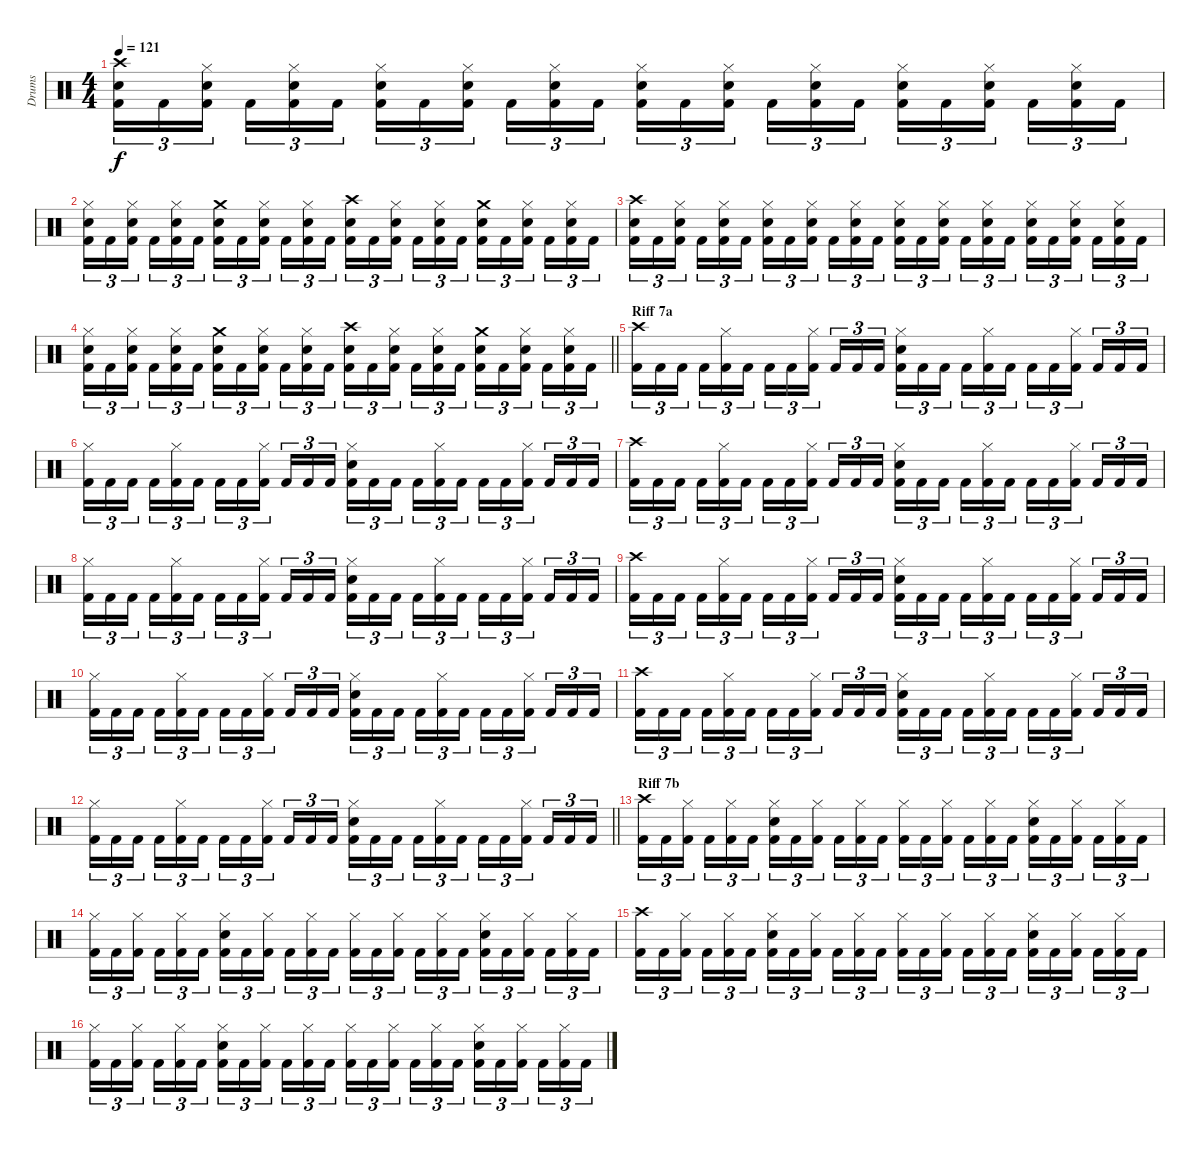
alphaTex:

\track ("Drums" "Drums") {instrument percussion}
\staff {score}
\articulation defaults
\ts (4 4)
\tempo 121
\clef neutral
\ks c
("Kick (hit) 2" "Crash high (hit)" "Snare (hit) 2").16{tu (3 2) dy f} "Kick (hit) 2".16{tu (3 2)} ("Kick (hit) 2" "Snare (hit) 2" "Hi-Hat (closed)").16{tu (3 2) beam splitsecondary} "Kick (hit) 2".16{tu (3 2)} ("Kick (hit) 2" "Snare (hit) 2" "Hi-Hat (closed)").16{tu (3 2)} "Kick (hit) 2".16{tu (3 2)} ("Kick (hit) 2" "Snare (hit) 2" "Hi-Hat (closed)").16{tu (3 2)} "Kick (hit) 2".16{tu (3 2)} ("Kick (hit) 2" "Snare (hit) 2" "Hi-Hat (closed)").16{tu (3 2) beam splitsecondary} "Kick (hit) 2".16{tu (3 2)} ("Kick (hit) 2" "Snare (hit) 2" "Hi-Hat (closed)").16{tu (3 2)} "Kick (hit) 2".16{tu (3 2)} ("Kick (hit) 2" "Snare (hit) 2" "Hi-Hat (closed)").16{tu (3 2)} "Kick (hit) 2".16{tu (3 2)} ("Kick (hit) 2" "Snare (hit) 2" "Hi-Hat (closed)").16{tu (3 2) beam splitsecondary} "Kick (hit) 2".16{tu (3 2)} ("Kick (hit) 2" "Snare (hit) 2" "Hi-Hat (closed)").16{tu (3 2)} "Kick (hit) 2".16{tu (3 2)} ("Kick (hit) 2" "Snare (hit) 2" "Hi-Hat (closed)").16{tu (3 2)} "Kick (hit) 2".16{tu (3 2)} ("Kick (hit) 2" "Snare (hit) 2" "Hi-Hat (closed)").16{tu (3 2) beam splitsecondary} "Kick (hit) 2".16{tu (3 2)} ("Kick (hit) 2" "Snare (hit) 2" "Hi-Hat (closed)").16{tu (3 2)} "Kick (hit) 2".16{tu (3 2)} |
("Kick (hit) 2" "Snare (hit) 2" "Hi-Hat (closed)").16{tu (3 2)} "Kick (hit) 2".16{tu (3 2)} ("Kick (hit) 2" "Snare (hit) 2" "Hi-Hat (closed)").16{tu (3 2) beam splitsecondary} "Kick (hit) 2".16{tu (3 2)} ("Kick (hit) 2" "Snare (hit) 2" "Hi-Hat (closed)").16{tu (3 2)} "Kick (hit) 2".16{tu (3 2)} ("Kick (hit) 2" "Crash medium (hit)" "Snare (hit) 2").16{tu (3 2)} "Kick (hit) 2".16{tu (3 2)} ("Kick (hit) 2" "Snare (hit) 2" "Hi-Hat (closed)").16{tu (3 2) beam splitsecondary} "Kick (hit) 2".16{tu (3 2)} ("Kick (hit) 2" "Snare (hit) 2" "Hi-Hat (closed)").16{tu (3 2)} "Kick (hit) 2".16{tu (3 2)} ("Kick (hit) 2" "Crash high (hit)" "Snare (hit) 2").16{tu (3 2)} "Kick (hit) 2".16{tu (3 2)} ("Kick (hit) 2" "Snare (hit) 2" "Hi-Hat (closed)").16{tu (3 2) beam splitsecondary} "Kick (hit) 2".16{tu (3 2)} ("Kick (hit) 2" "Snare (hit) 2" "Hi-Hat (closed)").16{tu (3 2)} "Kick (hit) 2".16{tu (3 2)} ("Kick (hit) 2" "Crash medium (hit)" "Snare (hit) 2").16{tu (3 2)} "Kick (hit) 2".16{tu (3 2)} ("Kick (hit) 2" "Snare (hit) 2" "Hi-Hat (closed)").16{tu (3 2) beam splitsecondary} "Kick (hit) 2".16{tu (3 2)} ("Kick (hit) 2" "Snare (hit) 2" "Hi-Hat (closed)").16{tu (3 2)} "Kick (hit) 2".16{tu (3 2)} |
("Kick (hit) 2" "Crash high (hit)" "Snare (hit) 2").16{tu (3 2)} "Kick (hit) 2".16{tu (3 2)} ("Kick (hit) 2" "Snare (hit) 2" "Hi-Hat (closed)").16{tu (3 2) beam splitsecondary} "Kick (hit) 2".16{tu (3 2)} ("Kick (hit) 2" "Snare (hit) 2" "Hi-Hat (closed)").16{tu (3 2)} "Kick (hit) 2".16{tu (3 2)} ("Kick (hit) 2" "Snare (hit) 2" "Hi-Hat (closed)").16{tu (3 2)} "Kick (hit) 2".16{tu (3 2)} ("Kick (hit) 2" "Snare (hit) 2" "Hi-Hat (closed)").16{tu (3 2) beam splitsecondary} "Kick (hit) 2".16{tu (3 2)} ("Kick (hit) 2" "Snare (hit) 2" "Hi-Hat (closed)").16{tu (3 2)} "Kick (hit) 2".16{tu (3 2)} ("Kick (hit) 2" "Snare (hit) 2" "Hi-Hat (closed)").16{tu (3 2)} "Kick (hit) 2".16{tu (3 2)} ("Kick (hit) 2" "Snare (hit) 2" "Hi-Hat (closed)").16{tu (3 2) beam splitsecondary} "Kick (hit) 2".16{tu (3 2)} ("Kick (hit) 2" "Snare (hit) 2" "Hi-Hat (closed)").16{tu (3 2)} "Kick (hit) 2".16{tu (3 2)} ("Kick (hit) 2" "Snare (hit) 2" "Hi-Hat (closed)").16{tu (3 2)} "Kick (hit) 2".16{tu (3 2)} ("Kick (hit) 2" "Snare (hit) 2" "Hi-Hat (closed)").16{tu (3 2) beam splitsecondary} "Kick (hit) 2".16{tu (3 2)} ("Kick (hit) 2" "Snare (hit) 2" "Hi-Hat (closed)").16{tu (3 2)} "Kick (hit) 2".16{tu (3 2)} |
\barLineRight lightlight
("Kick (hit) 2" "Snare (hit) 2" "Hi-Hat (closed)").16{tu (3 2)} "Kick (hit) 2".16{tu (3 2)} ("Kick (hit) 2" "Snare (hit) 2" "Hi-Hat (closed)").16{tu (3 2) beam splitsecondary} "Kick (hit) 2".16{tu (3 2)} ("Kick (hit) 2" "Snare (hit) 2" "Hi-Hat (closed)").16{tu (3 2)} "Kick (hit) 2".16{tu (3 2)} ("Kick (hit) 2" "Crash medium (hit)" "Snare (hit) 2").16{tu (3 2)} "Kick (hit) 2".16{tu (3 2)} ("Kick (hit) 2" "Snare (hit) 2" "Hi-Hat (closed)").16{tu (3 2) beam splitsecondary} "Kick (hit) 2".16{tu (3 2)} ("Kick (hit) 2" "Snare (hit) 2" "Hi-Hat (closed)").16{tu (3 2)} "Kick (hit) 2".16{tu (3 2)} ("Kick (hit) 2" "Crash high (hit)" "Snare (hit) 2").16{tu (3 2)} "Kick (hit) 2".16{tu (3 2)} ("Kick (hit) 2" "Snare (hit) 2" "Hi-Hat (closed)").16{tu (3 2) beam splitsecondary} "Kick (hit) 2".16{tu (3 2)} ("Kick (hit) 2" "Snare (hit) 2" "Hi-Hat (closed)").16{tu (3 2)} "Kick (hit) 2".16{tu (3 2)} ("Kick (hit) 2" "Crash medium (hit)" "Snare (hit) 2").16{tu (3 2)} "Kick (hit) 2".16{tu (3 2)} ("Kick (hit) 2" "Snare (hit) 2" "Hi-Hat (closed)").16{tu (3 2) beam splitsecondary} "Kick (hit) 2".16{tu (3 2)} ("Kick (hit) 2" "Snare (hit) 2" "Hi-Hat (closed)").16{tu (3 2)} "Kick (hit) 2".16{tu (3 2)} |
\section ("" "Riff 7a")
("Kick (hit) 2" "Crash high (hit)").16{tu (3 2)} "Kick (hit) 2".16{tu (3 2)} "Kick (hit) 2".16{tu (3 2) beam splitsecondary} "Kick (hit) 2".16{tu (3 2)} ("Kick (hit) 2" "Hi-Hat (closed)").16{tu (3 2)} "Kick (hit) 2".16{tu (3 2)} "Kick (hit) 2".16{tu (3 2)} "Kick (hit) 2".16{tu (3 2)} ("Kick (hit) 2" "Hi-Hat (closed)").16{tu (3 2) beam splitsecondary} "Kick (hit) 2".16{tu (3 2)} "Kick (hit) 2".16{tu (3 2)} "Kick (hit) 2".16{tu (3 2)} ("Kick (hit) 2" "Hi-Hat (closed)" "Snare (hit) 2").16{tu (3 2)} "Kick (hit) 2".16{tu (3 2)} "Kick (hit) 2".16{tu (3 2) beam splitsecondary} "Kick (hit) 2".16{tu (3 2)} ("Kick (hit) 2" "Hi-Hat (closed)").16{tu (3 2)} "Kick (hit) 2".16{tu (3 2)} "Kick (hit) 2".16{tu (3 2)} "Kick (hit) 2".16{tu (3 2)} ("Kick (hit) 2" "Hi-Hat (closed)").16{tu (3 2) beam splitsecondary} "Kick (hit) 2".16{tu (3 2)} "Kick (hit) 2".16{tu (3 2)} "Kick (hit) 2".16{tu (3 2)} |
("Kick (hit) 2" "Hi-Hat (closed)").16{tu (3 2)} "Kick (hit) 2".16{tu (3 2)} "Kick (hit) 2".16{tu (3 2) beam splitsecondary} "Kick (hit) 2".16{tu (3 2)} ("Kick (hit) 2" "Hi-Hat (closed)").16{tu (3 2)} "Kick (hit) 2".16{tu (3 2)} "Kick (hit) 2".16{tu (3 2)} "Kick (hit) 2".16{tu (3 2)} ("Kick (hit) 2" "Hi-Hat (closed)").16{tu (3 2) beam splitsecondary} "Kick (hit) 2".16{tu (3 2)} "Kick (hit) 2".16{tu (3 2)} "Kick (hit) 2".16{tu (3 2)} ("Kick (hit) 2" "Hi-Hat (closed)" "Snare (hit) 2").16{tu (3 2)} "Kick (hit) 2".16{tu (3 2)} "Kick (hit) 2".16{tu (3 2) beam splitsecondary} "Kick (hit) 2".16{tu (3 2)} ("Kick (hit) 2" "Hi-Hat (closed)").16{tu (3 2)} "Kick (hit) 2".16{tu (3 2)} "Kick (hit) 2".16{tu (3 2)} "Kick (hit) 2".16{tu (3 2)} ("Kick (hit) 2" "Hi-Hat (closed)").16{tu (3 2) beam splitsecondary} "Kick (hit) 2".16{tu (3 2)} "Kick (hit) 2".16{tu (3 2)} "Kick (hit) 2".16{tu (3 2)} |
("Kick (hit) 2" "Crash high (hit)").16{tu (3 2)} "Kick (hit) 2".16{tu (3 2)} "Kick (hit) 2".16{tu (3 2) beam splitsecondary} "Kick (hit) 2".16{tu (3 2)} ("Kick (hit) 2" "Hi-Hat (closed)").16{tu (3 2)} "Kick (hit) 2".16{tu (3 2)} "Kick (hit) 2".16{tu (3 2)} "Kick (hit) 2".16{tu (3 2)} ("Kick (hit) 2" "Hi-Hat (closed)").16{tu (3 2) beam splitsecondary} "Kick (hit) 2".16{tu (3 2)} "Kick (hit) 2".16{tu (3 2)} "Kick (hit) 2".16{tu (3 2)} ("Kick (hit) 2" "Hi-Hat (closed)" "Snare (hit) 2").16{tu (3 2)} "Kick (hit) 2".16{tu (3 2)} "Kick (hit) 2".16{tu (3 2) beam splitsecondary} "Kick (hit) 2".16{tu (3 2)} ("Kick (hit) 2" "Hi-Hat (closed)").16{tu (3 2)} "Kick (hit) 2".16{tu (3 2)} "Kick (hit) 2".16{tu (3 2)} "Kick (hit) 2".16{tu (3 2)} ("Kick (hit) 2" "Hi-Hat (closed)").16{tu (3 2) beam splitsecondary} "Kick (hit) 2".16{tu (3 2)} "Kick (hit) 2".16{tu (3 2)} "Kick (hit) 2".16{tu (3 2)} |
("Kick (hit) 2" "Hi-Hat (closed)").16{tu (3 2)} "Kick (hit) 2".16{tu (3 2)} "Kick (hit) 2".16{tu (3 2) beam splitsecondary} "Kick (hit) 2".16{tu (3 2)} ("Kick (hit) 2" "Hi-Hat (closed)").16{tu (3 2)} "Kick (hit) 2".16{tu (3 2)} "Kick (hit) 2".16{tu (3 2)} "Kick (hit) 2".16{tu (3 2)} ("Kick (hit) 2" "Hi-Hat (closed)").16{tu (3 2) beam splitsecondary} "Kick (hit) 2".16{tu (3 2)} "Kick (hit) 2".16{tu (3 2)} "Kick (hit) 2".16{tu (3 2)} ("Kick (hit) 2" "Hi-Hat (closed)" "Snare (hit) 2").16{tu (3 2)} "Kick (hit) 2".16{tu (3 2)} "Kick (hit) 2".16{tu (3 2) beam splitsecondary} "Kick (hit) 2".16{tu (3 2)} ("Kick (hit) 2" "Hi-Hat (closed)").16{tu (3 2)} "Kick (hit) 2".16{tu (3 2)} "Kick (hit) 2".16{tu (3 2)} "Kick (hit) 2".16{tu (3 2)} ("Kick (hit) 2" "Hi-Hat (closed)").16{tu (3 2) beam splitsecondary} "Kick (hit) 2".16{tu (3 2)} "Kick (hit) 2".16{tu (3 2)} "Kick (hit) 2".16{tu (3 2)} |
("Kick (hit) 2" "Crash high (hit)").16{tu (3 2)} "Kick (hit) 2".16{tu (3 2)} "Kick (hit) 2".16{tu (3 2) beam splitsecondary} "Kick (hit) 2".16{tu (3 2)} ("Kick (hit) 2" "Hi-Hat (closed)").16{tu (3 2)} "Kick (hit) 2".16{tu (3 2)} "Kick (hit) 2".16{tu (3 2)} "Kick (hit) 2".16{tu (3 2)} ("Kick (hit) 2" "Hi-Hat (closed)").16{tu (3 2) beam splitsecondary} "Kick (hit) 2".16{tu (3 2)} "Kick (hit) 2".16{tu (3 2)} "Kick (hit) 2".16{tu (3 2)} ("Kick (hit) 2" "Hi-Hat (closed)" "Snare (hit) 2").16{tu (3 2)} "Kick (hit) 2".16{tu (3 2)} "Kick (hit) 2".16{tu (3 2) beam splitsecondary} "Kick (hit) 2".16{tu (3 2)} ("Kick (hit) 2" "Hi-Hat (closed)").16{tu (3 2)} "Kick (hit) 2".16{tu (3 2)} "Kick (hit) 2".16{tu (3 2)} "Kick (hit) 2".16{tu (3 2)} ("Kick (hit) 2" "Hi-Hat (closed)").16{tu (3 2) beam splitsecondary} "Kick (hit) 2".16{tu (3 2)} "Kick (hit) 2".16{tu (3 2)} "Kick (hit) 2".16{tu (3 2)} |
("Kick (hit) 2" "Hi-Hat (closed)").16{tu (3 2)} "Kick (hit) 2".16{tu (3 2)} "Kick (hit) 2".16{tu (3 2) beam splitsecondary} "Kick (hit) 2".16{tu (3 2)} ("Kick (hit) 2" "Hi-Hat (closed)").16{tu (3 2)} "Kick (hit) 2".16{tu (3 2)} "Kick (hit) 2".16{tu (3 2)} "Kick (hit) 2".16{tu (3 2)} ("Kick (hit) 2" "Hi-Hat (closed)").16{tu (3 2) beam splitsecondary} "Kick (hit) 2".16{tu (3 2)} "Kick (hit) 2".16{tu (3 2)} "Kick (hit) 2".16{tu (3 2)} ("Kick (hit) 2" "Hi-Hat (closed)" "Snare (hit) 2").16{tu (3 2)} "Kick (hit) 2".16{tu (3 2)} "Kick (hit) 2".16{tu (3 2) beam splitsecondary} "Kick (hit) 2".16{tu (3 2)} ("Kick (hit) 2" "Hi-Hat (closed)").16{tu (3 2)} "Kick (hit) 2".16{tu (3 2)} "Kick (hit) 2".16{tu (3 2)} "Kick (hit) 2".16{tu (3 2)} ("Kick (hit) 2" "Hi-Hat (closed)").16{tu (3 2) beam splitsecondary} "Kick (hit) 2".16{tu (3 2)} "Kick (hit) 2".16{tu (3 2)} "Kick (hit) 2".16{tu (3 2)} |
("Kick (hit) 2" "Crash high (hit)").16{tu (3 2)} "Kick (hit) 2".16{tu (3 2)} "Kick (hit) 2".16{tu (3 2) beam splitsecondary} "Kick (hit) 2".16{tu (3 2)} ("Kick (hit) 2" "Hi-Hat (closed)").16{tu (3 2)} "Kick (hit) 2".16{tu (3 2)} "Kick (hit) 2".16{tu (3 2)} "Kick (hit) 2".16{tu (3 2)} ("Kick (hit) 2" "Hi-Hat (closed)").16{tu (3 2) beam splitsecondary} "Kick (hit) 2".16{tu (3 2)} "Kick (hit) 2".16{tu (3 2)} "Kick (hit) 2".16{tu (3 2)} ("Kick (hit) 2" "Hi-Hat (closed)" "Snare (hit) 2").16{tu (3 2)} "Kick (hit) 2".16{tu (3 2)} "Kick (hit) 2".16{tu (3 2) beam splitsecondary} "Kick (hit) 2".16{tu (3 2)} ("Kick (hit) 2" "Hi-Hat (closed)").16{tu (3 2)} "Kick (hit) 2".16{tu (3 2)} "Kick (hit) 2".16{tu (3 2)} "Kick (hit) 2".16{tu (3 2)} ("Kick (hit) 2" "Hi-Hat (closed)").16{tu (3 2) beam splitsecondary} "Kick (hit) 2".16{tu (3 2)} "Kick (hit) 2".16{tu (3 2)} "Kick (hit) 2".16{tu (3 2)} |
\barLineRight lightlight
("Kick (hit) 2" "Hi-Hat (closed)").16{tu (3 2)} "Kick (hit) 2".16{tu (3 2)} "Kick (hit) 2".16{tu (3 2) beam splitsecondary} "Kick (hit) 2".16{tu (3 2)} ("Kick (hit) 2" "Hi-Hat (closed)").16{tu (3 2)} "Kick (hit) 2".16{tu (3 2)} "Kick (hit) 2".16{tu (3 2)} "Kick (hit) 2".16{tu (3 2)} ("Kick (hit) 2" "Hi-Hat (closed)").16{tu (3 2) beam splitsecondary} "Kick (hit) 2".16{tu (3 2)} "Kick (hit) 2".16{tu (3 2)} "Kick (hit) 2".16{tu (3 2)} ("Kick (hit) 2" "Hi-Hat (closed)" "Snare (hit) 2").16{tu (3 2)} "Kick (hit) 2".16{tu (3 2)} "Kick (hit) 2".16{tu (3 2) beam splitsecondary} "Kick (hit) 2".16{tu (3 2)} ("Kick (hit) 2" "Hi-Hat (closed)").16{tu (3 2)} "Kick (hit) 2".16{tu (3 2)} "Kick (hit) 2".16{tu (3 2)} "Kick (hit) 2".16{tu (3 2)} ("Kick (hit) 2" "Hi-Hat (closed)").16{tu (3 2) beam splitsecondary} "Kick (hit) 2".16{tu (3 2)} "Kick (hit) 2".16{tu (3 2)} "Kick (hit) 2".16{tu (3 2)} |
\section ("" "Riff 7b")
("Kick (hit) 2" "Crash high (hit)").16{tu (3 2)} "Kick (hit) 2".16{tu (3 2)} ("Kick (hit) 2" "Hi-Hat (closed)").16{tu (3 2) beam splitsecondary} "Kick (hit) 2".16{tu (3 2)} ("Kick (hit) 2" "Hi-Hat (closed)").16{tu (3 2)} "Kick (hit) 2".16{tu (3 2)} ("Kick (hit) 2" "Hi-Hat (closed)" "Snare (hit) 2").16{tu (3 2)} "Kick (hit) 2".16{tu (3 2)} ("Kick (hit) 2" "Hi-Hat (closed)").16{tu (3 2) beam splitsecondary} "Kick (hit) 2".16{tu (3 2)} ("Kick (hit) 2" "Hi-Hat (closed)").16{tu (3 2)} "Kick (hit) 2".16{tu (3 2)} ("Kick (hit) 2" "Hi-Hat (closed)").16{tu (3 2)} "Kick (hit) 2".16{tu (3 2)} ("Kick (hit) 2" "Hi-Hat (closed)").16{tu (3 2) beam splitsecondary} "Kick (hit) 2".16{tu (3 2)} ("Kick (hit) 2" "Hi-Hat (closed)").16{tu (3 2)} "Kick (hit) 2".16{tu (3 2)} ("Kick (hit) 2" "Hi-Hat (closed)" "Snare (hit) 2").16{tu (3 2)} "Kick (hit) 2".16{tu (3 2)} ("Kick (hit) 2" "Hi-Hat (closed)").16{tu (3 2) beam splitsecondary} "Kick (hit) 2".16{tu (3 2)} ("Kick (hit) 2" "Hi-Hat (closed)").16{tu (3 2)} "Kick (hit) 2".16{tu (3 2)} |
("Kick (hit) 2" "Hi-Hat (closed)").16{tu (3 2)} "Kick (hit) 2".16{tu (3 2)} ("Kick (hit) 2" "Hi-Hat (closed)").16{tu (3 2) beam splitsecondary} "Kick (hit) 2".16{tu (3 2)} ("Kick (hit) 2" "Hi-Hat (closed)").16{tu (3 2)} "Kick (hit) 2".16{tu (3 2)} ("Kick (hit) 2" "Hi-Hat (closed)" "Snare (hit) 2").16{tu (3 2)} "Kick (hit) 2".16{tu (3 2)} ("Kick (hit) 2" "Hi-Hat (closed)").16{tu (3 2) beam splitsecondary} "Kick (hit) 2".16{tu (3 2)} ("Kick (hit) 2" "Hi-Hat (closed)").16{tu (3 2)} "Kick (hit) 2".16{tu (3 2)} ("Kick (hit) 2" "Hi-Hat (closed)").16{tu (3 2)} "Kick (hit) 2".16{tu (3 2)} ("Kick (hit) 2" "Hi-Hat (closed)").16{tu (3 2) beam splitsecondary} "Kick (hit) 2".16{tu (3 2)} ("Kick (hit) 2" "Hi-Hat (closed)").16{tu (3 2)} "Kick (hit) 2".16{tu (3 2)} ("Kick (hit) 2" "Hi-Hat (closed)" "Snare (hit) 2").16{tu (3 2)} "Kick (hit) 2".16{tu (3 2)} ("Kick (hit) 2" "Hi-Hat (closed)").16{tu (3 2) beam splitsecondary} "Kick (hit) 2".16{tu (3 2)} ("Kick (hit) 2" "Hi-Hat (closed)").16{tu (3 2)} "Kick (hit) 2".16{tu (3 2)} |
("Kick (hit) 2" "Crash high (hit)").16{tu (3 2)} "Kick (hit) 2".16{tu (3 2)} ("Kick (hit) 2" "Hi-Hat (closed)").16{tu (3 2) beam splitsecondary} "Kick (hit) 2".16{tu (3 2)} ("Kick (hit) 2" "Hi-Hat (closed)").16{tu (3 2)} "Kick (hit) 2".16{tu (3 2)} ("Kick (hit) 2" "Hi-Hat (closed)" "Snare (hit) 2").16{tu (3 2)} "Kick (hit) 2".16{tu (3 2)} ("Kick (hit) 2" "Hi-Hat (closed)").16{tu (3 2) beam splitsecondary} "Kick (hit) 2".16{tu (3 2)} ("Kick (hit) 2" "Hi-Hat (closed)").16{tu (3 2)} "Kick (hit) 2".16{tu (3 2)} ("Kick (hit) 2" "Hi-Hat (closed)").16{tu (3 2)} "Kick (hit) 2".16{tu (3 2)} ("Kick (hit) 2" "Hi-Hat (closed)").16{tu (3 2) beam splitsecondary} "Kick (hit) 2".16{tu (3 2)} ("Kick (hit) 2" "Hi-Hat (closed)").16{tu (3 2)} "Kick (hit) 2".16{tu (3 2)} ("Kick (hit) 2" "Hi-Hat (closed)" "Snare (hit) 2").16{tu (3 2)} "Kick (hit) 2".16{tu (3 2)} ("Kick (hit) 2" "Hi-Hat (closed)").16{tu (3 2) beam splitsecondary} "Kick (hit) 2".16{tu (3 2)} ("Kick (hit) 2" "Hi-Hat (closed)").16{tu (3 2)} "Kick (hit) 2".16{tu (3 2)} |
("Kick (hit) 2" "Hi-Hat (closed)").16{tu (3 2)} "Kick (hit) 2".16{tu (3 2)} ("Kick (hit) 2" "Hi-Hat (closed)").16{tu (3 2) beam splitsecondary} "Kick (hit) 2".16{tu (3 2)} ("Kick (hit) 2" "Hi-Hat (closed)").16{tu (3 2)} "Kick (hit) 2".16{tu (3 2)} ("Kick (hit) 2" "Hi-Hat (closed)" "Snare (hit) 2").16{tu (3 2)} "Kick (hit) 2".16{tu (3 2)} ("Kick (hit) 2" "Hi-Hat (closed)").16{tu (3 2) beam splitsecondary} "Kick (hit) 2".16{tu (3 2)} ("Kick (hit) 2" "Hi-Hat (closed)").16{tu (3 2)} "Kick (hit) 2".16{tu (3 2)} ("Kick (hit) 2" "Hi-Hat (closed)").16{tu (3 2)} "Kick (hit) 2".16{tu (3 2)} ("Kick (hit) 2" "Hi-Hat (closed)").16{tu (3 2) beam splitsecondary} "Kick (hit) 2".16{tu (3 2)} ("Kick (hit) 2" "Hi-Hat (closed)").16{tu (3 2)} "Kick (hit) 2".16{tu (3 2)} ("Kick (hit) 2" "Hi-Hat (closed)" "Snare (hit) 2").16{tu (3 2)} "Kick (hit) 2".16{tu (3 2)} ("Kick (hit) 2" "Hi-Hat (closed)").16{tu (3 2) beam splitsecondary} "Kick (hit) 2".16{tu (3 2)} ("Kick (hit) 2" "Hi-Hat (closed)").16{tu (3 2)} "Kick (hit) 2".16{tu (3 2)}
